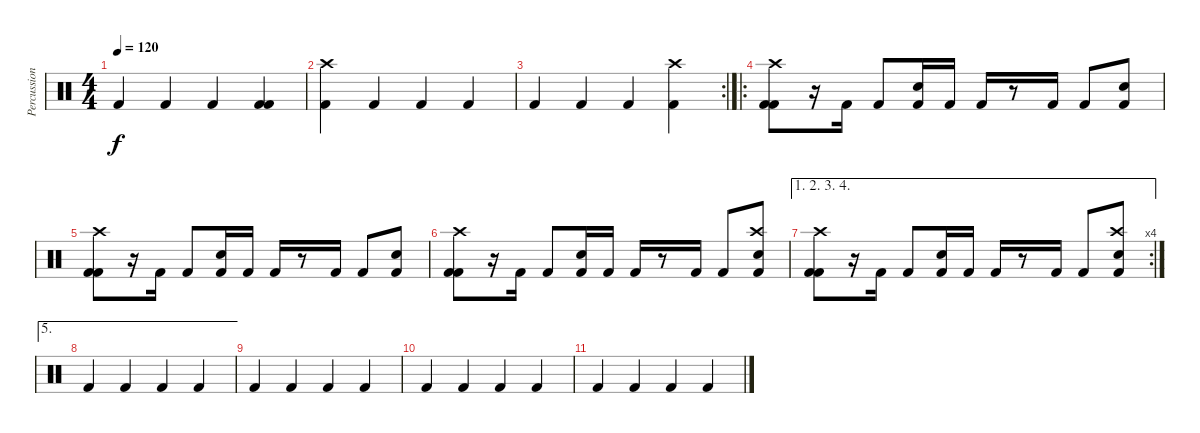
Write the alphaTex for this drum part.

\track ("Percussion" "Percussion") {instrument percussion}
\staff {score}
\articulation defaults
\ts (4 4)
\tempo 120
\clef neutral
\ks c "Kick (hit) 2".4{dy f} "Kick (hit) 2".4 "Kick (hit) 2".4
("Kick (hit) 2" "Kick (hit) 2").4 |
("Crash high (hit)" "Kick (hit) 2").4 "Kick (hit) 2".4 "Kick (hit) 2".4 "Kick (hit) 2".4 |
\rc 2 "Kick (hit) 2".4 "Kick (hit) 2".4 "Kick (hit) 2".4
("Crash high (hit)" "Kick (hit) 2").4 |
\ro
("Crash high (hit)" "Kick (hit) 2" "Kick (hit) 2").8 r.16 "Kick (hit) 2".16 "Kick (hit) 2".8 ("Snare (hit) 2" "Kick (hit) 2").16 "Kick (hit) 2".16 "Kick (hit) 2".16 r.8 "Kick (hit) 2".16 "Kick (hit) 2".8 ("Snare (hit) 2" "Kick (hit) 2").8 |
("Crash high (hit)" "Kick (hit) 2" "Kick (hit) 2").8 r.16 "Kick (hit) 2".16 "Kick (hit) 2".8 ("Snare (hit) 2" "Kick (hit) 2").16 "Kick (hit) 2".16 "Kick (hit) 2".16 r.8 "Kick (hit) 2".16 "Kick (hit) 2".8 ("Snare (hit) 2" "Kick (hit) 2").8 |
("Crash high (hit)" "Kick (hit) 2" "Kick (hit) 2").8 r.16 "Kick (hit) 2".16 "Kick (hit) 2".8 ("Snare (hit) 2" "Kick (hit) 2").16 "Kick (hit) 2".16 "Kick (hit) 2".16 r.8 "Kick (hit) 2".16 "Kick (hit) 2".8 ("Crash high (hit)" "Snare (hit) 2" "Kick (hit) 2").8 |
\ae (1 2 3 4)
\rc 4
("Crash high (hit)" "Kick (hit) 2" "Kick (hit) 2").8 r.16 "Kick (hit) 2".16 "Kick (hit) 2".8 ("Snare (hit) 2" "Kick (hit) 2").16 "Kick (hit) 2".16 "Kick (hit) 2".16 r.8 "Kick (hit) 2".16 "Kick (hit) 2".8 ("Crash high (hit)" "Snare (hit) 2" "Kick (hit) 2").8 |
\ae 5 "Kick (hit) 2".4 "Kick (hit) 2".4 "Kick (hit) 2".4 "Kick (hit) 2".4
|
"Kick (hit) 2".4 "Kick (hit) 2".4 "Kick (hit) 2".4 "Kick (hit) 2".4 |
"Kick (hit) 2".4 "Kick (hit) 2".4 "Kick (hit) 2".4 "Kick (hit) 2".4 |
"Kick (hit) 2".4 "Kick (hit) 2".4 "Kick (hit) 2".4 "Kick (hit) 2".4
